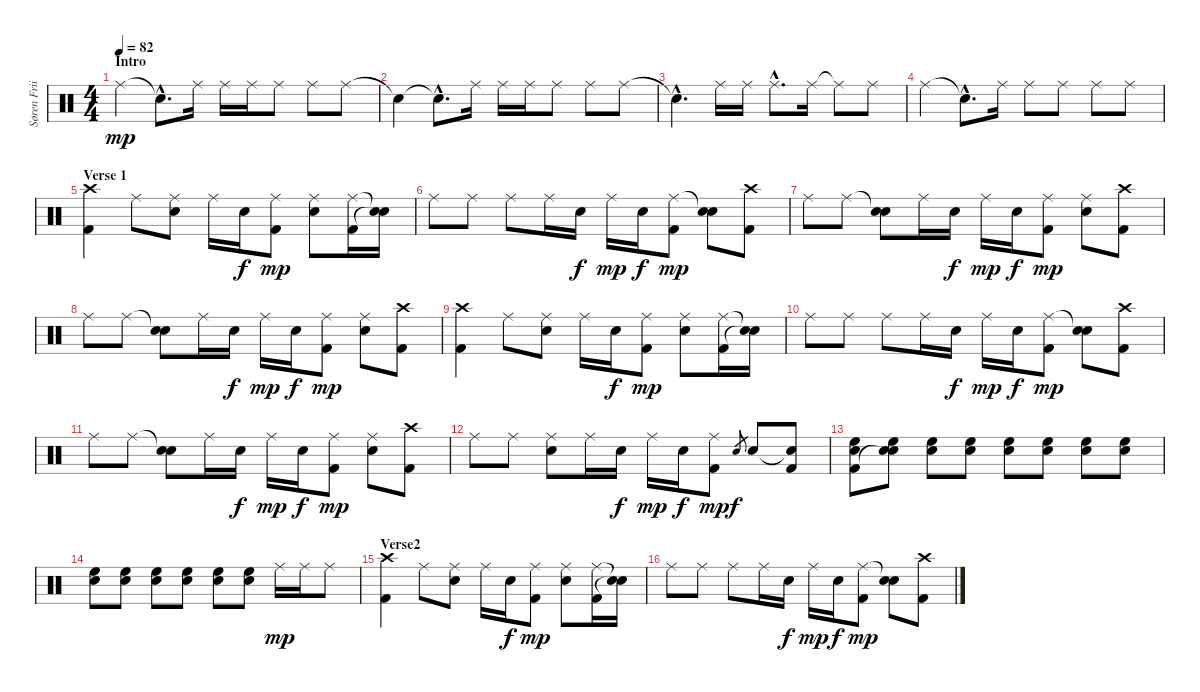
\track ("Søren Friis" "Søren Frii") {instrument percussion}
\staff {score}
\articulation defaults
\ts (4 4)
\section ("" "Intro")
\tempo 82
\clef neutral
\ks c "Ride (middle)".4{dy mp} "Snare (hit)"{hac t}.8{d} "Ride (middle)".16 "Ride (middle)".16 "Ride (middle)".16 "Ride (middle)".8 "Ride (middle)".8 "Ride (middle)".8
|
"Snare (hit)"{t}.4 "Snare (hit)"{hac t}.8{d} "Ride (middle)".16 "Ride (middle)".16 "Ride (middle)".16 "Ride (middle)".8 "Ride (middle)".8 "Ride (middle)".8 |
"Snare (hit)"{hac t}.4{d} "Ride (middle)".16 "Ride (middle)".16 "Ride (middle)"{hac}.8{d} "Ride (middle)".16 "Ride (middle)"{t}.8 "Ride (middle)".8 |
"Ride (middle)".4 "Snare (hit)"{hac t}.8{d} "Ride (middle)".16 "Ride (middle)".8 "Ride (middle)".8 "Ride (middle)".8 "Ride (middle)".8 |
\section ("" "Verse 1")
("Crash high (hit)" "Kick (hit) 2").4 "Ride (middle)".8 ("Ride (middle)" "Snare (hit) 2").8 "Ride (middle)".16 "Snare (hit) 2".16{dy f} ("Ride (middle)" "Kick (hit) 2").8{dy mp} ("Ride (middle)" "Snare (hit) 2").8 ("Ride (middle)" "Kick (hit) 2").16 ("Snare (hit)"{t} "Snare (hit)"{t}).16 |
"Ride (middle)".8 "Ride (middle)".8 "Ride (middle)".8 "Ride (middle)".16 "Snare (hit) 2".16{dy f} "Ride (middle)".16{dy mp} "Snare (hit) 2".16{dy f} ("Ride (middle)" "Kick (hit) 2").8{dy mp} ("Snare (hit)"{t} "Snare (hit) 2").8 ("Crash high (hit)" "Kick (hit) 2").8 |
"Ride (middle)".8 "Ride (middle)".8 ("Snare (hit)"{t} "Snare (hit) 2").8 "Ride (middle)".16 "Snare (hit) 2".16{dy f} "Ride (middle)".16{dy mp} "Snare (hit) 2".16{dy f} ("Ride (middle)" "Kick (hit) 2").8{dy mp} ("Ride (middle)" "Snare (hit) 2").8 ("Crash high (hit)" "Kick (hit) 2").8 |
"Ride (middle)".8 "Ride (middle)".8 ("Snare (hit)"{t} "Snare (hit) 2").8 "Ride (middle)".16 "Snare (hit) 2".16{dy f} "Ride (middle)".16{dy mp} "Snare (hit) 2".16{dy f} ("Ride (middle)" "Kick (hit) 2").8{dy mp} ("Ride (middle)" "Snare (hit) 2").8 ("Crash high (hit)" "Kick (hit) 2").8 |
("Crash high (hit)" "Kick (hit) 2").4 "Ride (middle)".8 ("Ride (middle)" "Snare (hit) 2").8 "Ride (middle)".16 "Snare (hit) 2".16{dy f} ("Ride (middle)" "Kick (hit) 2").8{dy mp} ("Ride (middle)" "Snare (hit) 2").8 ("Ride (middle)" "Kick (hit) 2").16 ("Snare (hit)"{t} "Snare (hit)"{t}).16 |
"Ride (middle)".8 "Ride (middle)".8 "Ride (middle)".8 "Ride (middle)".16 "Snare (hit) 2".16{dy f} "Ride (middle)".16{dy mp} "Snare (hit) 2".16{dy f} ("Ride (middle)" "Kick (hit) 2").8{dy mp} ("Snare (hit)"{t} "Snare (hit) 2").8 ("Crash high (hit)" "Kick (hit) 2").8 |
"Ride (middle)".8 "Ride (middle)".8 ("Snare (hit)"{t} "Snare (hit) 2").8 "Ride (middle)".16 "Snare (hit) 2".16{dy f} "Ride (middle)".16{dy mp} "Snare (hit) 2".16{dy f} ("Ride (middle)" "Kick (hit) 2").8{dy mp} ("Ride (middle)" "Snare (hit) 2").8 ("Crash high (hit)" "Kick (hit) 2").8 |
"Ride (middle)".8 "Ride (middle)".8 ("Ride (middle)" "Snare (hit) 2").8 "Ride (middle)".16 "Snare (hit) 2".16{dy f} "Ride (middle)".16{dy mp} "Snare (hit) 2".16{dy f} ("Ride (middle)" "Kick (hit) 2").8{dy mp} "Snare (hit) 2".8{gr dy f} "Snare (hit) 2".8 ("Snare (hit)"{t} "Kick (hit) 2").8 |
("Snare (hit) 2" "High Floor Tom (hit)" "Kick (hit) 2").8 ("Snare (hit) 2" "High Floor Tom (hit)" "Snare (hit)"{t}).8 ("Snare (hit) 2" "High Floor Tom (hit)").8 ("Snare (hit) 2" "High Floor Tom (hit)").8 ("Snare (hit) 2" "High Floor Tom (hit)").8 ("Snare (hit) 2" "High Floor Tom (hit)").8 ("Snare (hit) 2" "High Floor Tom (hit)").8 ("Snare (hit) 2" "High Floor Tom (hit)").8 |
("Snare (hit) 2" "High Floor Tom (hit)").8 ("Snare (hit) 2" "High Floor Tom (hit)").8 ("Snare (hit) 2" "High Floor Tom (hit)").8 ("Snare (hit) 2" "High Floor Tom (hit)").8 ("Snare (hit) 2" "High Floor Tom (hit)").8 ("Snare (hit) 2" "High Floor Tom (hit)").8 "Ride (middle)".16{dy mp} "Ride (middle)".16 "Ride (middle)".8 |
\section ("" "Verse2")
("Crash high (hit)" "Kick (hit) 2").4 "Ride (middle)".8 ("Ride (middle)" "Snare (hit) 2").8 "Ride (middle)".16 "Snare (hit) 2".16{dy f} ("Ride (middle)" "Kick (hit) 2").8{dy mp} ("Ride (middle)" "Snare (hit) 2").8 ("Ride (middle)" "Kick (hit) 2").16 ("Snare (hit)"{t} "Snare (hit)"{t}).16 |
"Ride (middle)".8 "Ride (middle)".8 "Ride (middle)".8 "Ride (middle)".16 "Snare (hit) 2".16{dy f} "Ride (middle)".16{dy mp} "Snare (hit) 2".16{dy f} ("Ride (middle)" "Kick (hit) 2").8{dy mp} ("Snare (hit)"{t} "Snare (hit) 2").8 ("Crash high (hit)" "Kick (hit) 2").8
